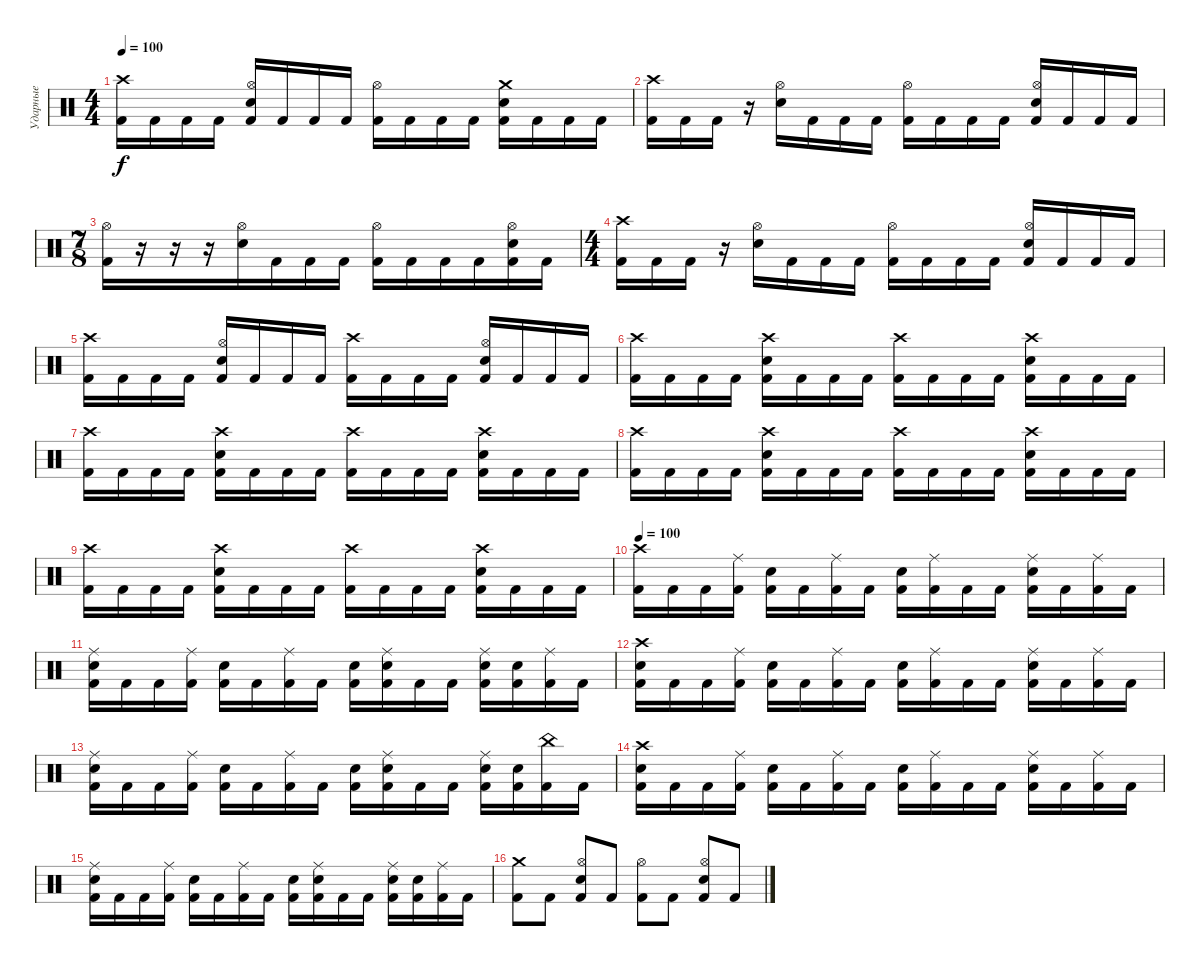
\track ("Ударные" "Ударные") {instrument percussion}
\staff {score}
\articulation defaults
\ts (4 4)
\tempo 100
\clef neutral
\ks c
("Crash high (hit)" "Kick (hit) 2").16{dy f} "Kick (hit) 2".16 "Kick (hit) 2".16 "Kick (hit) 2".16 ("Hi-Hat (open)" "Electric Snare (hit)" "Kick (hit) 2").16 "Kick (hit) 2".16 "Kick (hit) 2".16 "Kick (hit) 2".16 ("Hi-Hat (open)" "Kick (hit) 2").16 "Kick (hit) 2".16 "Kick (hit) 2".16 "Kick (hit) 2".16 ("Crash medium (hit)" "Electric Snare (hit)" "Kick (hit) 2").16 "Kick (hit) 2".16 "Kick (hit) 2".16 "Kick (hit) 2".16 |
("Crash high (hit)" "Kick (hit) 2").16 "Kick (hit) 2".16 "Kick (hit) 2".16 r.16 ("Hi-Hat (open)" "Electric Snare (hit)").16 "Kick (hit) 2".16 "Kick (hit) 2".16 "Kick (hit) 2".16 ("Hi-Hat (open)" "Kick (hit) 2").16 "Kick (hit) 2".16 "Kick (hit) 2".16 "Kick (hit) 2".16 ("Hi-Hat (open)" "Electric Snare (hit)" "Kick (hit) 2").16 "Kick (hit) 2".16 "Kick (hit) 2".16 "Kick (hit) 2".16 |
\ts (7 8)
("Hi-Hat (open)" "Kick (hit) 2").16 r.16 r.16 r.16 ("Hi-Hat (open)" "Electric Snare (hit)").16 "Kick (hit) 2".16 "Kick (hit) 2".16 "Kick (hit) 2".16 ("Hi-Hat (open)" "Kick (hit) 2").16 "Kick (hit) 2".16 "Kick (hit) 2".16 "Kick (hit) 2".16 ("Hi-Hat (open)" "Electric Snare (hit)" "Kick (hit) 2").16 "Kick (hit) 2".16 |
\ts (4 4)
("Crash high (hit)" "Kick (hit) 2").16 "Kick (hit) 2".16 "Kick (hit) 2".16 r.16 ("Hi-Hat (open)" "Electric Snare (hit)").16 "Kick (hit) 2".16 "Kick (hit) 2".16 "Kick (hit) 2".16 ("Hi-Hat (open)" "Kick (hit) 2").16 "Kick (hit) 2".16 "Kick (hit) 2".16 "Kick (hit) 2".16 ("Hi-Hat (open)" "Electric Snare (hit)" "Kick (hit) 2").16 "Kick (hit) 2".16 "Kick (hit) 2".16 "Kick (hit) 2".16 |
("Crash high (hit)" "Kick (hit) 2").16 "Kick (hit) 2".16 "Kick (hit) 2".16 "Kick (hit) 2".16 ("Hi-Hat (open)" "Electric Snare (hit)" "Kick (hit) 2").16 "Kick (hit) 2".16 "Kick (hit) 2".16 "Kick (hit) 2".16 ("Crash high (hit)" "Kick (hit) 2").16 "Kick (hit) 2".16 "Kick (hit) 2".16 "Kick (hit) 2".16 ("Hi-Hat (open)" "Electric Snare (hit)" "Kick (hit) 2").16 "Kick (hit) 2".16 "Kick (hit) 2".16 "Kick (hit) 2".16 |
("Crash high (hit)" "Kick (hit) 2").16 "Kick (hit) 2".16 "Kick (hit) 2".16 "Kick (hit) 2".16 ("Crash high (hit)" "Electric Snare (hit)" "Kick (hit) 2").16 "Kick (hit) 2".16 "Kick (hit) 2".16 "Kick (hit) 2".16 ("Crash high (hit)" "Kick (hit) 2").16 "Kick (hit) 2".16 "Kick (hit) 2".16 "Kick (hit) 2".16 ("Crash high (hit)" "Electric Snare (hit)" "Kick (hit) 2").16 "Kick (hit) 2".16 "Kick (hit) 2".16 "Kick (hit) 2".16 |
("Crash high (hit)" "Kick (hit) 2").16 "Kick (hit) 2".16 "Kick (hit) 2".16 "Kick (hit) 2".16 ("Crash high (hit)" "Electric Snare (hit)" "Kick (hit) 2").16 "Kick (hit) 2".16 "Kick (hit) 2".16 "Kick (hit) 2".16 ("Crash high (hit)" "Kick (hit) 2").16 "Kick (hit) 2".16 "Kick (hit) 2".16 "Kick (hit) 2".16 ("Crash high (hit)" "Electric Snare (hit)" "Kick (hit) 2").16 "Kick (hit) 2".16 "Kick (hit) 2".16 "Kick (hit) 2".16 |
("Crash high (hit)" "Kick (hit) 2").16 "Kick (hit) 2".16 "Kick (hit) 2".16 "Kick (hit) 2".16 ("Crash high (hit)" "Electric Snare (hit)" "Kick (hit) 2").16 "Kick (hit) 2".16 "Kick (hit) 2".16 "Kick (hit) 2".16 ("Crash high (hit)" "Kick (hit) 2").16 "Kick (hit) 2".16 "Kick (hit) 2".16 "Kick (hit) 2".16 ("Crash high (hit)" "Electric Snare (hit)" "Kick (hit) 2").16 "Kick (hit) 2".16 "Kick (hit) 2".16 "Kick (hit) 2".16 |
("Crash high (hit)" "Kick (hit) 2").16 "Kick (hit) 2".16 "Kick (hit) 2".16 "Kick (hit) 2".16 ("Crash high (hit)" "Electric Snare (hit)" "Kick (hit) 2").16 "Kick (hit) 2".16 "Kick (hit) 2".16 "Kick (hit) 2".16 ("Crash high (hit)" "Kick (hit) 2").16 "Kick (hit) 2".16 "Kick (hit) 2".16 "Kick (hit) 2".16 ("Crash high (hit)" "Electric Snare (hit)" "Kick (hit) 2").16 "Kick (hit) 2".16 "Kick (hit) 2".16 "Kick (hit) 2".16 |
\tempo 100
("Crash high (hit)" "Kick (hit) 2").16 "Kick (hit) 2".16 "Kick (hit) 2".16 ("Ride (middle)" "Kick (hit) 2").16 ("Electric Snare (hit)" "Kick (hit) 2").16 "Kick (hit) 2".16 ("Ride (middle)" "Kick (hit) 2").16 "Kick (hit) 2".16 ("Electric Snare (hit)" "Kick (hit) 2").16 ("Ride (middle)" "Kick (hit) 2").16 "Kick (hit) 2".16 "Kick (hit) 2".16 ("Ride (middle)" "Electric Snare (hit)" "Kick (hit) 2").16 "Kick (hit) 2".16 ("Ride (middle)" "Kick (hit) 2").16 "Kick (hit) 2".16 |
("Ride (middle)" "Electric Snare (hit)" "Kick (hit) 2").16 "Kick (hit) 2".16 "Kick (hit) 2".16 ("Ride (middle)" "Kick (hit) 2").16 ("Electric Snare (hit)" "Kick (hit) 2").16 "Kick (hit) 2".16 ("Ride (middle)" "Kick (hit) 2").16 "Kick (hit) 2".16 ("Electric Snare (hit)" "Kick (hit) 2").16 ("Ride (middle)" "Electric Snare (hit)" "Kick (hit) 2").16 "Kick (hit) 2".16 "Kick (hit) 2".16 ("Ride (middle)" "Electric Snare (hit)" "Kick (hit) 2").16 ("Electric Snare (hit)" "Kick (hit) 2").16 ("Ride (middle)" "Kick (hit) 2").16 "Kick (hit) 2".16 |
("Crash high (hit)" "Electric Snare (hit)" "Kick (hit) 2").16 "Kick (hit) 2".16 "Kick (hit) 2".16 ("Ride (middle)" "Kick (hit) 2").16 ("Electric Snare (hit)" "Kick (hit) 2").16 "Kick (hit) 2".16 ("Ride (middle)" "Kick (hit) 2").16 "Kick (hit) 2".16 ("Electric Snare (hit)" "Kick (hit) 2").16 ("Ride (middle)" "Kick (hit) 2").16 "Kick (hit) 2".16 "Kick (hit) 2".16 ("Ride (middle)" "Electric Snare (hit)" "Kick (hit) 2").16 "Kick (hit) 2".16 ("Ride (middle)" "Kick (hit) 2").16 "Kick (hit) 2".16 |
("Ride (middle)" "Electric Snare (hit)" "Kick (hit) 2").16 "Kick (hit) 2".16 "Kick (hit) 2".16 ("Ride (middle)" "Kick (hit) 2").16 ("Electric Snare (hit)" "Kick (hit) 2").16 "Kick (hit) 2".16 ("Ride (middle)" "Kick (hit) 2").16 "Kick (hit) 2".16 ("Electric Snare (hit)" "Kick (hit) 2").16 ("Ride (middle)" "Electric Snare (hit)" "Kick (hit) 2").16 "Kick (hit) 2".16 "Kick (hit) 2".16 ("Ride (middle)" "Electric Snare (hit)" "Kick (hit) 2").16 ("Electric Snare (hit)" "Kick (hit) 2").16 ("China (hit)" "Kick (hit) 2").16 "Kick (hit) 2".16 |
("Crash high (hit)" "Electric Snare (hit)" "Kick (hit) 2").16 "Kick (hit) 2".16 "Kick (hit) 2".16 ("Ride (middle)" "Kick (hit) 2").16 ("Electric Snare (hit)" "Kick (hit) 2").16 "Kick (hit) 2".16 ("Ride (middle)" "Kick (hit) 2").16 "Kick (hit) 2".16 ("Electric Snare (hit)" "Kick (hit) 2").16 ("Ride (middle)" "Kick (hit) 2").16 "Kick (hit) 2".16 "Kick (hit) 2".16 ("Ride (middle)" "Electric Snare (hit)" "Kick (hit) 2").16 "Kick (hit) 2".16 ("Ride (middle)" "Kick (hit) 2").16 "Kick (hit) 2".16 |
("Ride (middle)" "Electric Snare (hit)" "Kick (hit) 2").16 "Kick (hit) 2".16 "Kick (hit) 2".16 ("Ride (middle)" "Kick (hit) 2").16 ("Electric Snare (hit)" "Kick (hit) 2").16 "Kick (hit) 2".16 ("Ride (middle)" "Kick (hit) 2").16 "Kick (hit) 2".16 ("Electric Snare (hit)" "Kick (hit) 2").16 ("Ride (middle)" "Electric Snare (hit)" "Kick (hit) 2").16 "Kick (hit) 2".16 "Kick (hit) 2".16 ("Ride (middle)" "Electric Snare (hit)" "Kick (hit) 2").16 ("Electric Snare (hit)" "Kick (hit) 2").16 ("Ride (middle)" "Kick (hit) 2").16 "Kick (hit) 2".16 |
("Crash medium (hit)" "Kick (hit) 2").8 "Kick (hit) 2".8 ("Hi-Hat (open)" "Electric Snare (hit)" "Kick (hit) 2").8 "Kick (hit) 2".8 ("Hi-Hat (open)" "Kick (hit) 2").8 "Kick (hit) 2".8 ("Hi-Hat (open)" "Electric Snare (hit)" "Kick (hit) 2").8 "Kick (hit) 2".8
